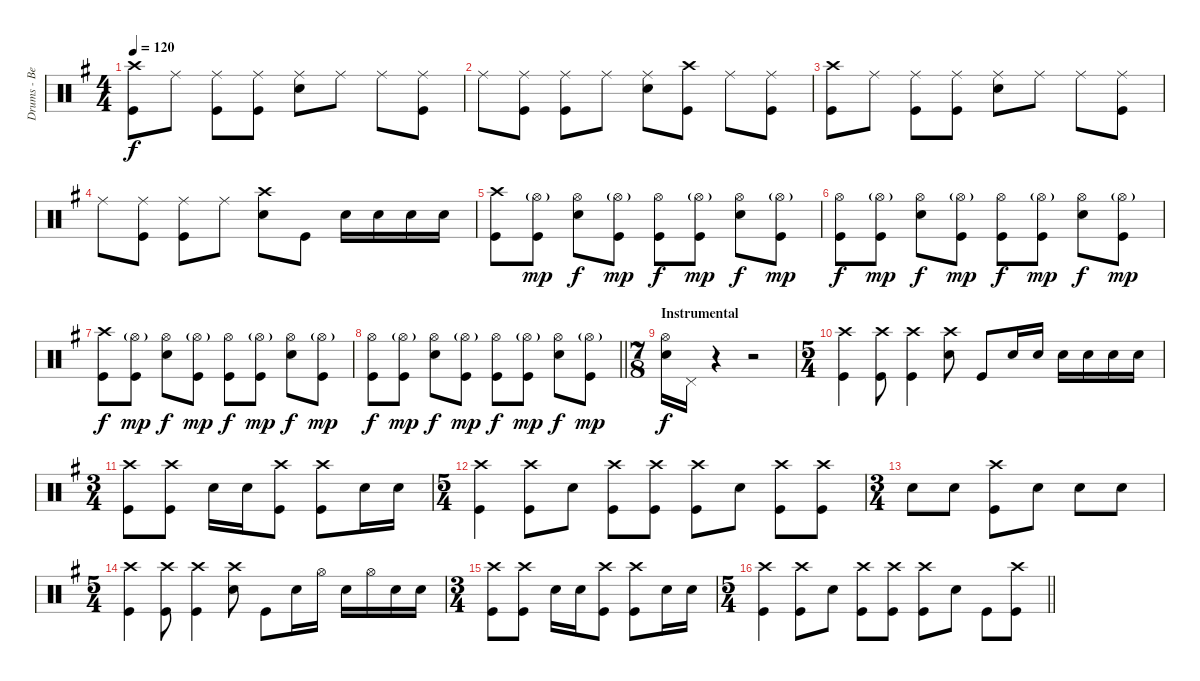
\track ("Drums - Ben Johnston" "Drums - Be") {instrument percussion}
\staff {score}
\articulation defaults
\ts (4 4)
\tempo 120
\clef neutral
\ks eminor
("Crash high (hit)" "Kick (hit)").8{dy f} "Ride (middle)".8 ("Ride (middle)" "Kick (hit)").8 ("Ride (middle)" "Kick (hit)").8 ("Ride (middle)" "Snare (hit) 2").8 "Ride (middle)".8 "Ride (middle)".8 ("Ride (middle)" "Kick (hit)").8 |
"Ride (middle)".8 ("Ride (middle)" "Kick (hit)").8 ("Ride (middle)" "Kick (hit)").8 "Ride (middle)".8 ("Ride (middle)" "Snare (hit) 2").8 ("Crash high (hit)" "Kick (hit)").8 "Ride (middle)".8 ("Ride (middle)" "Kick (hit)").8 |
("Crash high (hit)" "Kick (hit)").8 "Ride (middle)".8 ("Ride (middle)" "Kick (hit)").8 ("Ride (middle)" "Kick (hit)").8 ("Ride (middle)" "Snare (hit) 2").8 "Ride (middle)".8 "Ride (middle)".8 ("Ride (middle)" "Kick (hit)").8 |
"Ride (middle)".8 ("Ride (middle)" "Kick (hit)").8 ("Ride (middle)" "Kick (hit)").8 "Ride (middle)".8 ("Crash high (hit)" "Snare (hit) 2").8 "Kick (hit)".8 "Snare (hit) 2".16 "Snare (hit) 2".16 "Snare (hit) 2".16 "Snare (hit) 2".16 |
("Crash high (hit)" "Kick (hit)").8 ("Hi-Hat (open)"{g} "Kick (hit)").8{dy mp} ("Hi-Hat (open)" "Snare (hit) 2").8{dy f} ("Hi-Hat (open)"{g} "Kick (hit)").8{dy mp} ("Hi-Hat (open)" "Kick (hit)").8{dy f} ("Hi-Hat (open)"{g} "Kick (hit)").8{dy mp} ("Hi-Hat (open)" "Snare (hit) 2").8{dy f} ("Hi-Hat (open)"{g} "Kick (hit)").8{dy mp} |
("Hi-Hat (open)" "Kick (hit)").8{dy f} ("Hi-Hat (open)"{g} "Kick (hit)").8{dy mp} ("Hi-Hat (open)" "Snare (hit) 2").8{dy f} ("Hi-Hat (open)"{g} "Kick (hit)").8{dy mp} ("Hi-Hat (open)" "Kick (hit)").8{dy f} ("Hi-Hat (open)"{g} "Kick (hit)").8{dy mp} ("Hi-Hat (open)" "Snare (hit) 2").8{dy f} ("Hi-Hat (open)"{g} "Kick (hit)").8{dy mp} |
("Crash high (hit)" "Kick (hit)").8{dy f} ("Hi-Hat (open)"{g} "Kick (hit)").8{dy mp} ("Hi-Hat (open)" "Snare (hit) 2").8{dy f} ("Hi-Hat (open)"{g} "Kick (hit)").8{dy mp} ("Hi-Hat (open)" "Kick (hit)").8{dy f} ("Hi-Hat (open)"{g} "Kick (hit)").8{dy mp} ("Hi-Hat (open)" "Snare (hit) 2").8{dy f} ("Hi-Hat (open)"{g} "Kick (hit)").8{dy mp} |
\barLineRight lightlight
("Hi-Hat (open)" "Kick (hit)").8{dy f} ("Hi-Hat (open)"{g} "Kick (hit)").8{dy mp} ("Hi-Hat (open)" "Snare (hit) 2").8{dy f} ("Hi-Hat (open)"{g} "Kick (hit)").8{dy mp} ("Hi-Hat (open)" "Kick (hit)").8{dy f} ("Hi-Hat (open)"{g} "Kick (hit)").8{dy mp} ("Hi-Hat (open)" "Snare (hit) 2").8{dy f} ("Hi-Hat (open)"{g} "Kick (hit)").8{dy mp} |
\ts (7 8)
\section ("" "Instrumental")
("Hi-Hat (open)" "Snare (hit) 2").16{dy f} "Pedal Hi-Hat (hit)".16 r.4 r.2 |
\ts (5 4)
("Crash high (hit)" "Kick (hit)").4{volume 14} ("Crash high (hit)" "Kick (hit)").8 ("Crash high (hit)" "Kick (hit)").4 ("Crash high (hit)" "Snare (hit) 2").8 "Kick (hit)".8 "Snare (hit) 2".16 "Snare (hit) 2".16 "Snare (hit) 2".16 "Snare (hit) 2".16 "Snare (hit) 2".16 "Snare (hit) 2".16 |
\ts (3 4)
("Crash high (hit)" "Kick (hit)").8 ("Crash high (hit)" "Kick (hit)").8 "Snare (hit) 2".16 "Snare (hit) 2".16 ("Crash high (hit)" "Kick (hit)").8 ("Crash high (hit)" "Kick (hit)").8 "Snare (hit) 2".16 "Snare (hit) 2".16 |
\ts (5 4)
("Crash high (hit)" "Kick (hit)").4 ("Crash high (hit)" "Kick (hit)").8 "Snare (hit) 2".8 ("Crash high (hit)" "Kick (hit)").8 ("Crash high (hit)" "Kick (hit)").8 ("Crash high (hit)" "Kick (hit)").8 "Snare (hit) 2".8 ("Crash high (hit)" "Kick (hit)").8 ("Crash high (hit)" "Kick (hit)").8 |
\ts (3 4)
"Snare (hit) 2".8 "Snare (hit) 2".8 ("Crash high (hit)" "Kick (hit)").8 "Snare (hit) 2".8 "Snare (hit) 2".8 "Snare (hit) 2".8 |
\ts (5 4)
("Crash high (hit)" "Kick (hit)").4 ("Crash high (hit)" "Kick (hit)").8 ("Crash high (hit)" "Kick (hit)").4 ("Crash high (hit)" "Snare (hit) 2").8 "Kick (hit)".8 "Snare (hit) 2".16 "Hi-Hat (open)".16 "Snare (hit) 2".16 "Hi-Hat (open)".16 "Snare (hit) 2".16 "Snare (hit) 2".16 |
\ts (3 4)
("Crash high (hit)" "Kick (hit)").8 ("Crash high (hit)" "Kick (hit)").8 "Snare (hit) 2".16 "Snare (hit) 2".16 ("Crash high (hit)" "Kick (hit)").8 ("Crash high (hit)" "Kick (hit)").8 "Snare (hit) 2".16 "Snare (hit) 2".16 |
\ts (5 4)
\barLineRight lightlight
("Crash high (hit)" "Kick (hit)").4 ("Crash high (hit)" "Kick (hit)").8 "Snare (hit) 2".8 ("Crash high (hit)" "Kick (hit)").8 ("Crash high (hit)" "Kick (hit)").8 ("Crash high (hit)" "Kick (hit)").8 "Snare (hit) 2".8 "Kick (hit)".8 ("Crash high (hit)" "Kick (hit)").8
